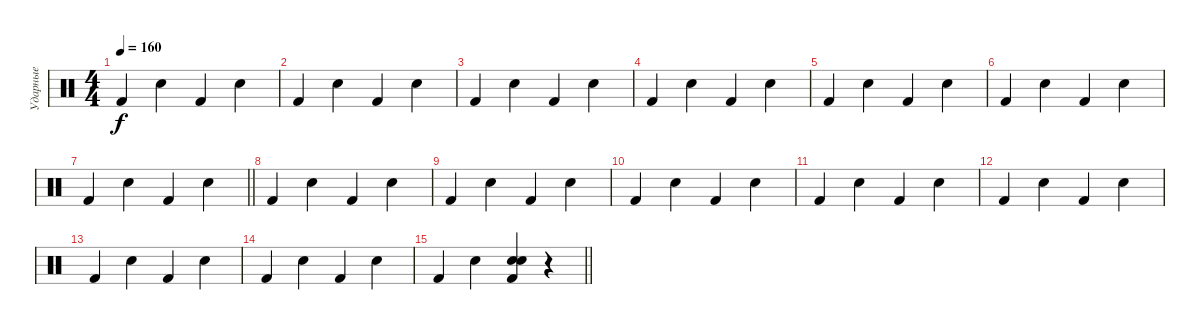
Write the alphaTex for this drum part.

\track ("Ударные" "Ударные") {instrument percussion}
\staff {score}
\articulation defaults
\ts (4 4)
\tempo 160
\clef neutral
\ks c "Kick (hit) 2".4{dy f} "Snare (hit) 2".4 "Kick (hit) 2".4 "Snare (hit) 2".4
|
"Kick (hit) 2".4 "Snare (hit) 2".4 "Kick (hit) 2".4 "Snare (hit) 2".4 |
"Kick (hit) 2".4 "Snare (hit) 2".4 "Kick (hit) 2".4 "Snare (hit) 2".4 |
"Kick (hit) 2".4 "Snare (hit) 2".4 "Kick (hit) 2".4 "Snare (hit) 2".4 |
"Kick (hit) 2".4 "Snare (hit) 2".4 "Kick (hit) 2".4 "Snare (hit) 2".4 |
"Kick (hit) 2".4 "Snare (hit) 2".4 "Kick (hit) 2".4 "Snare (hit) 2".4 |
\barLineRight lightlight "Kick (hit) 2".4 "Snare (hit) 2".4 "Kick (hit) 2".4 "Snare (hit) 2".4
|
"Kick (hit) 2".4 "Snare (hit) 2".4 "Kick (hit) 2".4 "Snare (hit) 2".4 |
"Kick (hit) 2".4 "Snare (hit) 2".4 "Kick (hit) 2".4 "Snare (hit) 2".4 |
"Kick (hit) 2".4 "Snare (hit) 2".4 "Kick (hit) 2".4 "Snare (hit) 2".4 |
"Kick (hit) 2".4 "Snare (hit) 2".4 "Kick (hit) 2".4 "Snare (hit) 2".4 |
"Kick (hit) 2".4 "Snare (hit) 2".4 "Kick (hit) 2".4 "Snare (hit) 2".4 |
"Kick (hit) 2".4 "Snare (hit) 2".4 "Kick (hit) 2".4 "Snare (hit) 2".4 |
"Kick (hit) 2".4 "Snare (hit) 2".4 "Kick (hit) 2".4 "Snare (hit) 2".4 |
\barLineRight lightlight "Kick (hit) 2".4 "Snare (hit) 2".4
("Electric Snare (hit)" "Kick (hit) 2" "Snare (hit) 2").4 r.4
